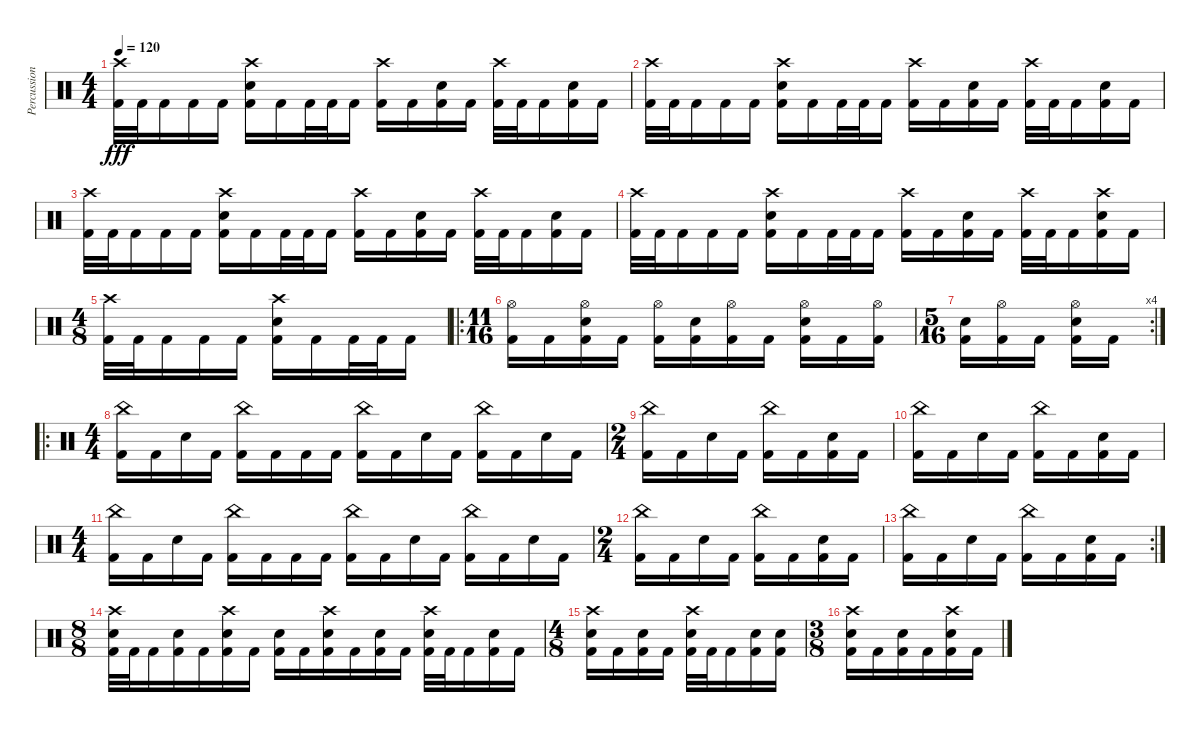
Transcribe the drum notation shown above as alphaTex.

\track ("Percussion" "Percussion") {instrument percussion}
\staff {score}
\articulation defaults
\ts (4 4)
\tempo 120
\clef neutral
\ks c
("Crash high (hit)" "Kick (hit) 2").32{dy fff} "Kick (hit) 2".32 "Kick (hit) 2".16 "Kick (hit) 2".16 "Kick (hit) 2".16 ("Crash high (hit)" "Snare (hit) 2" "Kick (hit) 2").16 "Kick (hit) 2".16 "Kick (hit) 2".32 "Kick (hit) 2".32 "Kick (hit) 2".16 ("Crash high (hit)" "Kick (hit) 2").16 "Kick (hit) 2".16 ("Snare (hit) 2" "Kick (hit) 2").16 "Kick (hit) 2".16 ("Crash high (hit)" "Kick (hit) 2").32 "Kick (hit) 2".32 "Kick (hit) 2".16 ("Snare (hit) 2" "Kick (hit) 2").16 "Kick (hit) 2".16 |
("Crash high (hit)" "Kick (hit) 2").32 "Kick (hit) 2".32 "Kick (hit) 2".16 "Kick (hit) 2".16 "Kick (hit) 2".16 ("Crash high (hit)" "Snare (hit) 2" "Kick (hit) 2").16 "Kick (hit) 2".16 "Kick (hit) 2".32 "Kick (hit) 2".32 "Kick (hit) 2".16 ("Crash high (hit)" "Kick (hit) 2").16 "Kick (hit) 2".16 ("Snare (hit) 2" "Kick (hit) 2").16 "Kick (hit) 2".16 ("Crash high (hit)" "Kick (hit) 2").32 "Kick (hit) 2".32 "Kick (hit) 2".16 ("Snare (hit) 2" "Kick (hit) 2").16 "Kick (hit) 2".16 |
("Crash high (hit)" "Kick (hit) 2").32 "Kick (hit) 2".32 "Kick (hit) 2".16 "Kick (hit) 2".16 "Kick (hit) 2".16 ("Crash high (hit)" "Snare (hit) 2" "Kick (hit) 2").16 "Kick (hit) 2".16 "Kick (hit) 2".32 "Kick (hit) 2".32 "Kick (hit) 2".16 ("Crash high (hit)" "Kick (hit) 2").16 "Kick (hit) 2".16 ("Snare (hit) 2" "Kick (hit) 2").16 "Kick (hit) 2".16 ("Crash high (hit)" "Kick (hit) 2").32 "Kick (hit) 2".32 "Kick (hit) 2".16 ("Snare (hit) 2" "Kick (hit) 2").16 "Kick (hit) 2".16 |
("Crash high (hit)" "Kick (hit) 2").32 "Kick (hit) 2".32 "Kick (hit) 2".16 "Kick (hit) 2".16 "Kick (hit) 2".16 ("Crash high (hit)" "Snare (hit) 2" "Kick (hit) 2").16 "Kick (hit) 2".16 "Kick (hit) 2".32 "Kick (hit) 2".32 "Kick (hit) 2".16 ("Crash high (hit)" "Kick (hit) 2").16 "Kick (hit) 2".16 ("Snare (hit) 2" "Kick (hit) 2").16 "Kick (hit) 2".16 ("Crash high (hit)" "Kick (hit) 2").32 "Kick (hit) 2".32 "Kick (hit) 2".16 ("Crash high (hit)" "Snare (hit) 2" "Kick (hit) 2").16 "Kick (hit) 2".16 |
\ts (4 8)
("Crash high (hit)" "Kick (hit) 2").32 "Kick (hit) 2".32 "Kick (hit) 2".16 "Kick (hit) 2".16 "Kick (hit) 2".16 ("Crash high (hit)" "Snare (hit) 2" "Kick (hit) 2").16 "Kick (hit) 2".16 "Kick (hit) 2".32 "Kick (hit) 2".32 "Kick (hit) 2".16 |
\ro
\ts (11 16)
("Hi-Hat (open)" "Kick (hit) 2").16 "Kick (hit) 2".16 ("Hi-Hat (open)" "Snare (hit) 2" "Kick (hit) 2").16 "Kick (hit) 2".16 ("Hi-Hat (open)" "Kick (hit) 2").16 ("Snare (hit) 2" "Kick (hit) 2").16 ("Hi-Hat (open)" "Kick (hit) 2").16 "Kick (hit) 2".16 ("Hi-Hat (open)" "Snare (hit) 2" "Kick (hit) 2").16 "Kick (hit) 2".16 ("Hi-Hat (open)" "Kick (hit) 2").16 |
\rc 4
\ts (5 16)
("Snare (hit) 2" "Kick (hit) 2").16 ("Hi-Hat (open)" "Kick (hit) 2").16 "Kick (hit) 2".16 ("Hi-Hat (open)" "Snare (hit) 2" "Kick (hit) 2").16 "Kick (hit) 2".16 |
\ro
\ts (4 4)
("China (hit)" "Kick (hit) 2").16 "Kick (hit) 2".16 "Snare (hit) 2".16 "Kick (hit) 2".16 ("China (hit)" "Kick (hit) 2").16 "Kick (hit) 2".16 "Kick (hit) 2".16 "Kick (hit) 2".16 ("China (hit)" "Kick (hit) 2").16 "Kick (hit) 2".16 "Snare (hit) 2".16 "Kick (hit) 2".16 ("China (hit)" "Kick (hit) 2").16 "Kick (hit) 2".16 "Snare (hit) 2".16 "Kick (hit) 2".16 |
\ts (2 4)
("China (hit)" "Kick (hit) 2").16 "Kick (hit) 2".16 "Snare (hit) 2".16 "Kick (hit) 2".16 ("China (hit)" "Kick (hit) 2").16 "Kick (hit) 2".16 ("Snare (hit) 2" "Kick (hit) 2").16 "Kick (hit) 2".16 |
("China (hit)" "Kick (hit) 2").16 "Kick (hit) 2".16 "Snare (hit) 2".16 "Kick (hit) 2".16 ("China (hit)" "Kick (hit) 2").16 "Kick (hit) 2".16 ("Snare (hit) 2" "Kick (hit) 2").16 "Kick (hit) 2".16 |
\ts (4 4)
("China (hit)" "Kick (hit) 2").16 "Kick (hit) 2".16 "Snare (hit) 2".16 "Kick (hit) 2".16 ("China (hit)" "Kick (hit) 2").16 "Kick (hit) 2".16 "Kick (hit) 2".16 "Kick (hit) 2".16 ("China (hit)" "Kick (hit) 2").16 "Kick (hit) 2".16 "Snare (hit) 2".16 "Kick (hit) 2".16 ("China (hit)" "Kick (hit) 2").16 "Kick (hit) 2".16 "Snare (hit) 2".16 "Kick (hit) 2".16 |
\ts (2 4)
("China (hit)" "Kick (hit) 2").16 "Kick (hit) 2".16 "Snare (hit) 2".16 "Kick (hit) 2".16 ("China (hit)" "Kick (hit) 2").16 "Kick (hit) 2".16 ("Snare (hit) 2" "Kick (hit) 2").16 "Kick (hit) 2".16 |
\rc 2
("China (hit)" "Kick (hit) 2").16 "Kick (hit) 2".16 "Snare (hit) 2".16 "Kick (hit) 2".16 ("China (hit)" "Kick (hit) 2").16 "Kick (hit) 2".16 ("Snare (hit) 2" "Kick (hit) 2").16 "Kick (hit) 2".16 |
\ts (8 8)
("Crash high (hit)" "Snare (hit) 2" "Kick (hit) 2").32 "Kick (hit) 2".32 "Kick (hit) 2".16 ("Snare (hit) 2" "Kick (hit) 2").16 "Kick (hit) 2".16 ("Crash high (hit)" "Snare (hit) 2" "Kick (hit) 2").16 "Kick (hit) 2".16 ("Snare (hit) 2" "Kick (hit) 2").16 "Kick (hit) 2".16 ("Crash high (hit)" "Snare (hit) 2" "Kick (hit) 2").16 "Kick (hit) 2".16 ("Snare (hit) 2" "Kick (hit) 2").16 "Kick (hit) 2".16 ("Crash high (hit)" "Snare (hit) 2" "Kick (hit) 2").32 "Kick (hit) 2".32 "Kick (hit) 2".16 ("Snare (hit) 2" "Kick (hit) 2").16 "Kick (hit) 2".16 |
\ts (4 8)
("Crash high (hit)" "Snare (hit) 2" "Kick (hit) 2").16 "Kick (hit) 2".16 ("Snare (hit) 2" "Kick (hit) 2").16 "Kick (hit) 2".16 ("Crash high (hit)" "Snare (hit) 2" "Kick (hit) 2").32 "Kick (hit) 2".32 "Kick (hit) 2".16 ("Snare (hit) 2" "Kick (hit) 2").16 ("Snare (hit) 2" "Kick (hit) 2").16 |
\ts (3 8)
("Crash high (hit)" "Snare (hit) 2" "Kick (hit) 2").16 "Kick (hit) 2".16 ("Snare (hit) 2" "Kick (hit) 2").16 "Kick (hit) 2".16 ("Crash high (hit)" "Snare (hit) 2" "Kick (hit) 2").16 "Kick (hit) 2".16
